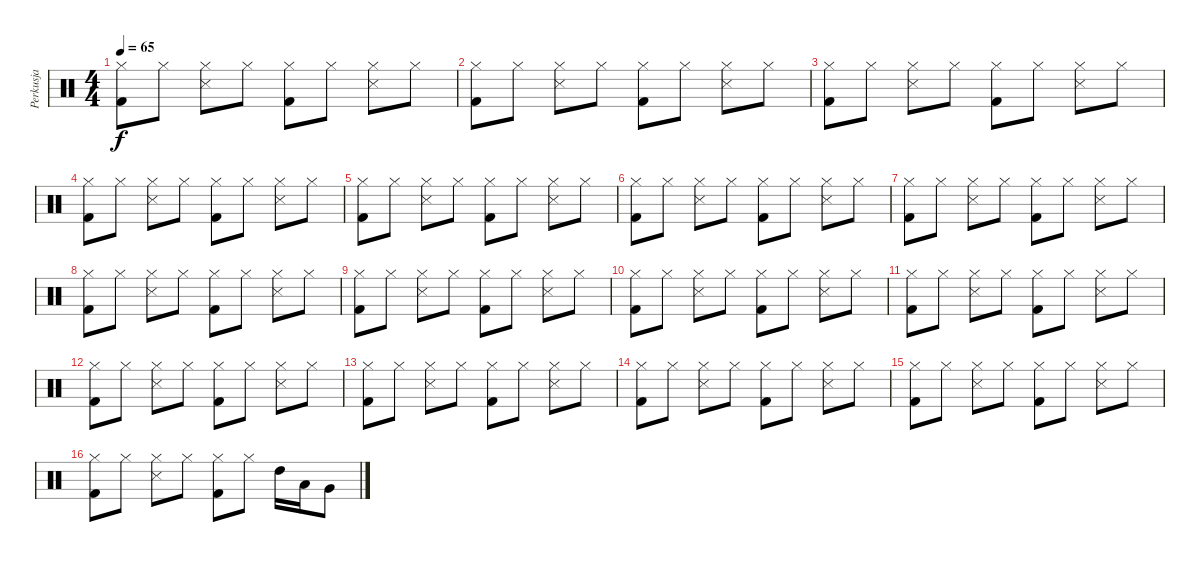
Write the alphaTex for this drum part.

\track ("Perkusja" "Perkusja") {instrument percussion}
\staff {score}
\articulation defaults
\ts (4 4)
\tempo 65
\clef neutral
\ks c
("Kick (hit) 2" "Hi-Hat (closed)").8{dy f} "Hi-Hat (closed)".8 ("Snare (side stick) 3" "Hi-Hat (closed)").8 "Hi-Hat (closed)".8 ("Kick (hit) 2" "Hi-Hat (closed)").8 "Hi-Hat (closed)".8 ("Snare (side stick) 3" "Hi-Hat (closed)").8 "Hi-Hat (closed)".8 |
("Kick (hit) 2" "Hi-Hat (closed)").8 "Hi-Hat (closed)".8 ("Snare (side stick) 3" "Hi-Hat (closed)").8 "Hi-Hat (closed)".8 ("Kick (hit) 2" "Hi-Hat (closed)").8 "Hi-Hat (closed)".8 ("Snare (side stick) 3" "Hi-Hat (closed)").8 "Hi-Hat (closed)".8 |
("Kick (hit) 2" "Hi-Hat (closed)").8 "Hi-Hat (closed)".8 ("Snare (side stick) 3" "Hi-Hat (closed)").8 "Hi-Hat (closed)".8 ("Kick (hit) 2" "Hi-Hat (closed)").8 "Hi-Hat (closed)".8 ("Snare (side stick) 3" "Hi-Hat (closed)").8 "Hi-Hat (closed)".8 |
("Kick (hit) 2" "Hi-Hat (closed)").8 "Hi-Hat (closed)".8 ("Snare (side stick) 3" "Hi-Hat (closed)").8 "Hi-Hat (closed)".8 ("Kick (hit) 2" "Hi-Hat (closed)").8 "Hi-Hat (closed)".8 ("Snare (side stick) 3" "Hi-Hat (closed)").8 "Hi-Hat (closed)".8 |
("Kick (hit) 2" "Hi-Hat (closed)").8 "Hi-Hat (closed)".8 ("Snare (side stick) 3" "Hi-Hat (closed)").8 "Hi-Hat (closed)".8 ("Kick (hit) 2" "Hi-Hat (closed)").8 "Hi-Hat (closed)".8 ("Snare (side stick) 3" "Hi-Hat (closed)").8 "Hi-Hat (closed)".8 |
("Kick (hit) 2" "Hi-Hat (closed)").8 "Hi-Hat (closed)".8 ("Snare (side stick) 3" "Hi-Hat (closed)").8 "Hi-Hat (closed)".8 ("Kick (hit) 2" "Hi-Hat (closed)").8 "Hi-Hat (closed)".8 ("Snare (side stick) 3" "Hi-Hat (closed)").8 "Hi-Hat (closed)".8 |
("Kick (hit) 2" "Hi-Hat (closed)").8 "Hi-Hat (closed)".8 ("Snare (side stick) 3" "Hi-Hat (closed)").8 "Hi-Hat (closed)".8 ("Kick (hit) 2" "Hi-Hat (closed)").8 "Hi-Hat (closed)".8 ("Snare (side stick) 3" "Hi-Hat (closed)").8 "Hi-Hat (closed)".8 |
("Kick (hit) 2" "Hi-Hat (closed)").8 "Hi-Hat (closed)".8 ("Snare (side stick) 3" "Hi-Hat (closed)").8 "Hi-Hat (closed)".8 ("Kick (hit) 2" "Hi-Hat (closed)").8 "Hi-Hat (closed)".8 ("Snare (side stick) 3" "Hi-Hat (closed)").8 "Hi-Hat (closed)".8 |
("Kick (hit) 2" "Hi-Hat (closed)").8 "Hi-Hat (closed)".8 ("Snare (side stick) 3" "Hi-Hat (closed)").8 "Hi-Hat (closed)".8 ("Kick (hit) 2" "Hi-Hat (closed)").8 "Hi-Hat (closed)".8 ("Snare (side stick) 3" "Hi-Hat (closed)").8 "Hi-Hat (closed)".8 |
("Kick (hit) 2" "Hi-Hat (closed)").8 "Hi-Hat (closed)".8 ("Snare (side stick) 3" "Hi-Hat (closed)").8 "Hi-Hat (closed)".8 ("Kick (hit) 2" "Hi-Hat (closed)").8 "Hi-Hat (closed)".8 ("Snare (side stick) 3" "Hi-Hat (closed)").8 "Hi-Hat (closed)".8 |
("Kick (hit) 2" "Hi-Hat (closed)").8 "Hi-Hat (closed)".8 ("Snare (side stick) 3" "Hi-Hat (closed)").8 "Hi-Hat (closed)".8 ("Kick (hit) 2" "Hi-Hat (closed)").8 "Hi-Hat (closed)".8 ("Snare (side stick) 3" "Hi-Hat (closed)").8 "Hi-Hat (closed)".8 |
("Kick (hit) 2" "Hi-Hat (closed)").8 "Hi-Hat (closed)".8 ("Snare (side stick) 3" "Hi-Hat (closed)").8 "Hi-Hat (closed)".8 ("Kick (hit) 2" "Hi-Hat (closed)").8 "Hi-Hat (closed)".8 ("Snare (side stick) 3" "Hi-Hat (closed)").8 "Hi-Hat (closed)".8 |
("Kick (hit) 2" "Hi-Hat (closed)").8 "Hi-Hat (closed)".8 ("Snare (side stick) 3" "Hi-Hat (closed)").8 "Hi-Hat (closed)".8 ("Kick (hit) 2" "Hi-Hat (closed)").8 "Hi-Hat (closed)".8 ("Snare (side stick) 3" "Hi-Hat (closed)").8 "Hi-Hat (closed)".8 |
("Kick (hit) 2" "Hi-Hat (closed)").8 "Hi-Hat (closed)".8 ("Snare (side stick) 3" "Hi-Hat (closed)").8 "Hi-Hat (closed)".8 ("Kick (hit) 2" "Hi-Hat (closed)").8 "Hi-Hat (closed)".8 ("Snare (side stick) 3" "Hi-Hat (closed)").8 "Hi-Hat (closed)".8 |
("Kick (hit) 2" "Hi-Hat (closed)").8 "Hi-Hat (closed)".8 ("Snare (side stick) 3" "Hi-Hat (closed)").8 "Hi-Hat (closed)".8 ("Kick (hit) 2" "Hi-Hat (closed)").8 "Hi-Hat (closed)".8 ("Snare (side stick) 3" "Hi-Hat (closed)").8 "Hi-Hat (closed)".8 |
("Kick (hit) 2" "Hi-Hat (closed)").8 "Hi-Hat (closed)".8 ("Snare (side stick) 3" "Hi-Hat (closed)").8 "Hi-Hat (closed)".8 ("Kick (hit) 2" "Hi-Hat (closed)").8 "Hi-Hat (closed)".8 "High Tom (hit)".16 "Low Tom (hit)".16 "Very Low Tom (hit)".8
